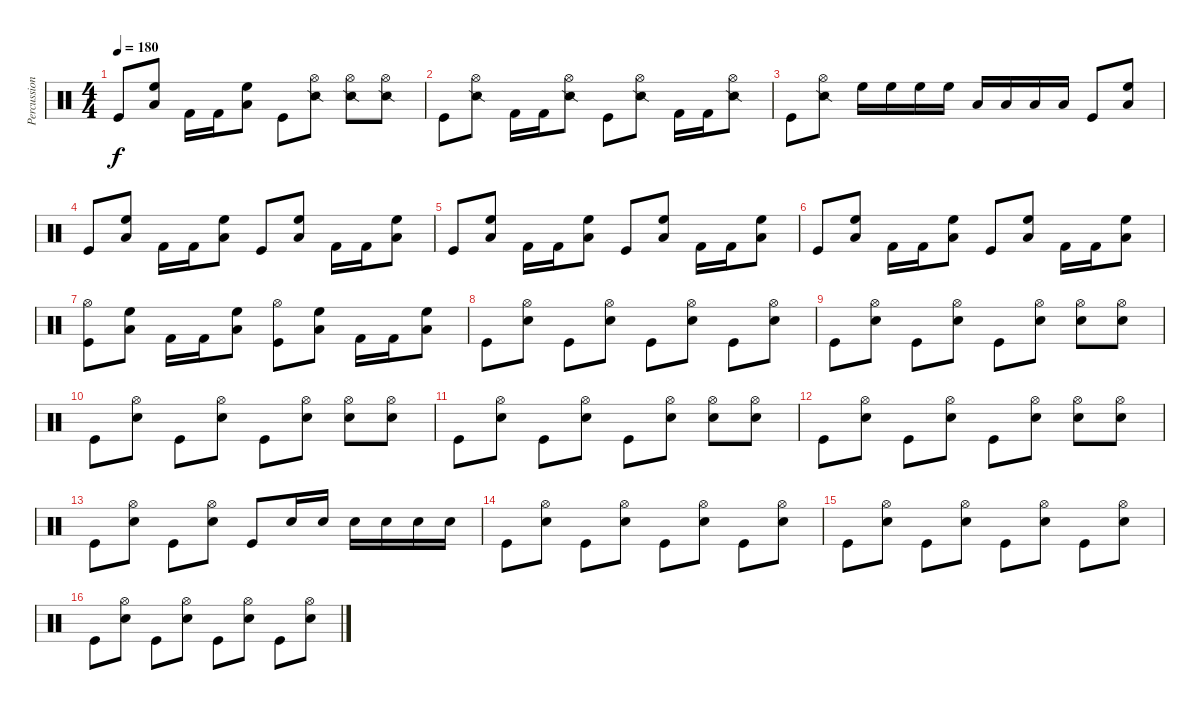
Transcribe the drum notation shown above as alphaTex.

\track ("Percussion" "Percussion") {instrument percussion}
\staff {score}
\articulation defaults
\ts (4 4)
\tempo 180
\clef neutral
\ks c "Kick (hit)".8{dy f}
("High Floor Tom (hit)" "Low Floor Tom (hit)").8 "Kick (hit) 2".16 "Kick (hit) 2".16 ("High Floor Tom (hit)" "Low Floor Tom (hit)").8 "Kick (hit)".8 ("Hi-Hat (open)" "Snare (side stick) 2").8 ("Hi-Hat (open)" "Snare (side stick) 2").8 ("Hi-Hat (open)" "Snare (side stick) 2").8 |
"Kick (hit)".8 ("Hi-Hat (open)" "Snare (side stick) 2").8 "Kick (hit) 2".16 "Kick (hit) 2".16 ("Hi-Hat (open)" "Snare (side stick) 2").8 "Kick (hit)".8 ("Hi-Hat (open)" "Snare (side stick) 2").8 "Kick (hit) 2".16 "Kick (hit) 2".16 ("Hi-Hat (open)" "Snare (side stick) 2").8 |
"Kick (hit)".8 ("Hi-Hat (open)" "Snare (side stick) 2").8 "High Floor Tom (hit)".16 "High Floor Tom (hit)".16 "High Floor Tom (hit)".16 "High Floor Tom (hit)".16 "Low Floor Tom (hit)".16 "Low Floor Tom (hit)".16 "Low Floor Tom (hit)".16 "Low Floor Tom (hit)".16 "Kick (hit)".8 ("High Floor Tom (hit)" "Low Floor Tom (hit)").8 |
"Kick (hit)".8 ("High Floor Tom (hit)" "Low Floor Tom (hit)").8 "Kick (hit) 2".16 "Kick (hit) 2".16 ("High Floor Tom (hit)" "Low Floor Tom (hit)").8 "Kick (hit)".8 ("High Floor Tom (hit)" "Low Floor Tom (hit)").8 "Kick (hit) 2".16 "Kick (hit) 2".16 ("High Floor Tom (hit)" "Low Floor Tom (hit)").8 |
"Kick (hit)".8 ("High Floor Tom (hit)" "Low Floor Tom (hit)").8 "Kick (hit) 2".16 "Kick (hit) 2".16 ("High Floor Tom (hit)" "Low Floor Tom (hit)").8 "Kick (hit)".8 ("High Floor Tom (hit)" "Low Floor Tom (hit)").8 "Kick (hit) 2".16 "Kick (hit) 2".16 ("High Floor Tom (hit)" "Low Floor Tom (hit)").8 |
"Kick (hit)".8 ("High Floor Tom (hit)" "Low Floor Tom (hit)").8 "Kick (hit) 2".16 "Kick (hit) 2".16 ("High Floor Tom (hit)" "Low Floor Tom (hit)").8 "Kick (hit)".8 ("High Floor Tom (hit)" "Low Floor Tom (hit)").8 "Kick (hit) 2".16 "Kick (hit) 2".16 ("High Floor Tom (hit)" "Low Floor Tom (hit)").8 |
("Hi-Hat (open)" "Kick (hit)").8 ("High Floor Tom (hit)" "Low Floor Tom (hit)").8 "Kick (hit) 2".16 "Kick (hit) 2".16 ("High Floor Tom (hit)" "Low Floor Tom (hit)").8 ("Hi-Hat (open)" "Kick (hit)").8 ("High Floor Tom (hit)" "Low Floor Tom (hit)").8 "Kick (hit) 2".16 "Kick (hit) 2".16 ("High Floor Tom (hit)" "Low Floor Tom (hit)").8 |
"Kick (hit)".8 ("Hi-Hat (open)" "Electric Snare (hit)").8 "Kick (hit)".8 ("Hi-Hat (open)" "Electric Snare (hit)").8 "Kick (hit)".8 ("Hi-Hat (open)" "Electric Snare (hit)").8 "Kick (hit)".8 ("Hi-Hat (open)" "Electric Snare (hit)").8 |
"Kick (hit)".8 ("Hi-Hat (open)" "Electric Snare (hit)").8 "Kick (hit)".8 ("Hi-Hat (open)" "Electric Snare (hit)").8 "Kick (hit)".8 ("Hi-Hat (open)" "Electric Snare (hit)").8 ("Hi-Hat (open)" "Electric Snare (hit)").8 ("Hi-Hat (open)" "Electric Snare (hit)").8 |
"Kick (hit)".8 ("Hi-Hat (open)" "Electric Snare (hit)").8 "Kick (hit)".8 ("Hi-Hat (open)" "Electric Snare (hit)").8 "Kick (hit)".8 ("Hi-Hat (open)" "Electric Snare (hit)").8 ("Hi-Hat (open)" "Electric Snare (hit)").8 ("Hi-Hat (open)" "Electric Snare (hit)").8 |
"Kick (hit)".8 ("Hi-Hat (open)" "Electric Snare (hit)").8 "Kick (hit)".8 ("Hi-Hat (open)" "Electric Snare (hit)").8 "Kick (hit)".8 ("Hi-Hat (open)" "Electric Snare (hit)").8 ("Hi-Hat (open)" "Electric Snare (hit)").8 ("Hi-Hat (open)" "Electric Snare (hit)").8 |
"Kick (hit)".8 ("Hi-Hat (open)" "Electric Snare (hit)").8 "Kick (hit)".8 ("Hi-Hat (open)" "Electric Snare (hit)").8 "Kick (hit)".8 ("Hi-Hat (open)" "Electric Snare (hit)").8 ("Hi-Hat (open)" "Electric Snare (hit)").8 ("Hi-Hat (open)" "Electric Snare (hit)").8 |
"Kick (hit)".8 ("Hi-Hat (open)" "Electric Snare (hit)").8 "Kick (hit)".8 ("Hi-Hat (open)" "Electric Snare (hit)").8 "Kick (hit)".8 "Electric Snare (hit)".16 "Electric Snare (hit)".16 "Electric Snare (hit)".16 "Electric Snare (hit)".16 "Electric Snare (hit)".16 "Electric Snare (hit)".16 |
"Kick (hit)".8 ("Hi-Hat (open)" "Electric Snare (hit)").8 "Kick (hit)".8 ("Hi-Hat (open)" "Electric Snare (hit)").8 "Kick (hit)".8 ("Hi-Hat (open)" "Electric Snare (hit)").8 "Kick (hit)".8 ("Hi-Hat (open)" "Electric Snare (hit)").8 |
"Kick (hit)".8 ("Hi-Hat (open)" "Electric Snare (hit)").8 "Kick (hit)".8 ("Hi-Hat (open)" "Electric Snare (hit)").8 "Kick (hit)".8 ("Hi-Hat (open)" "Electric Snare (hit)").8 "Kick (hit)".8 ("Hi-Hat (open)" "Electric Snare (hit)").8 |
"Kick (hit)".8 ("Hi-Hat (open)" "Electric Snare (hit)").8 "Kick (hit)".8 ("Hi-Hat (open)" "Electric Snare (hit)").8 "Kick (hit)".8 ("Hi-Hat (open)" "Electric Snare (hit)").8 "Kick (hit)".8 ("Hi-Hat (open)" "Electric Snare (hit)").8
